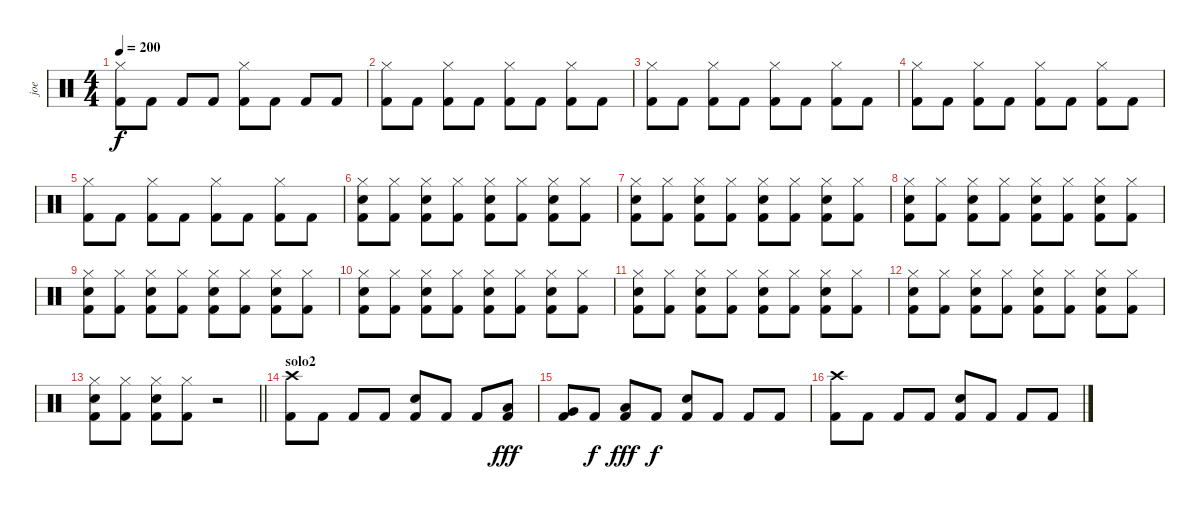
\track ("joe" "joe") {instrument percussion}
\staff {score}
\articulation defaults
\ts (4 4)
\tempo 200
\clef neutral
\ks c
("Hi-Hat (closed)" "Kick (hit) 2").8{dy f} "Kick (hit) 2".8 "Kick (hit) 2".8 "Kick (hit) 2".8 ("Hi-Hat (closed)" "Kick (hit) 2").8 "Kick (hit) 2".8 "Kick (hit) 2".8 "Kick (hit) 2".8 |
("Hi-Hat (closed)" "Kick (hit) 2").8 "Kick (hit) 2".8 ("Hi-Hat (closed)" "Kick (hit) 2").8 "Kick (hit) 2".8 ("Hi-Hat (closed)" "Kick (hit) 2").8 "Kick (hit) 2".8 ("Hi-Hat (closed)" "Kick (hit) 2").8 "Kick (hit) 2".8 |
("Hi-Hat (closed)" "Kick (hit) 2").8 "Kick (hit) 2".8 ("Hi-Hat (closed)" "Kick (hit) 2").8 "Kick (hit) 2".8 ("Hi-Hat (closed)" "Kick (hit) 2").8 "Kick (hit) 2".8 ("Hi-Hat (closed)" "Kick (hit) 2").8 "Kick (hit) 2".8 |
("Hi-Hat (closed)" "Kick (hit) 2").8 "Kick (hit) 2".8 ("Hi-Hat (closed)" "Kick (hit) 2").8 "Kick (hit) 2".8 ("Hi-Hat (closed)" "Kick (hit) 2").8 "Kick (hit) 2".8 ("Hi-Hat (closed)" "Kick (hit) 2").8 "Kick (hit) 2".8 |
("Hi-Hat (closed)" "Kick (hit) 2").8 "Kick (hit) 2".8 ("Hi-Hat (closed)" "Kick (hit) 2").8 "Kick (hit) 2".8 ("Hi-Hat (closed)" "Kick (hit) 2").8 "Kick (hit) 2".8 ("Hi-Hat (closed)" "Kick (hit) 2").8 "Kick (hit) 2".8 |
("Hi-Hat (closed)" "Snare (hit) 2" "Kick (hit) 2").8 ("Hi-Hat (closed)" "Kick (hit) 2").8 ("Hi-Hat (closed)" "Snare (hit) 2" "Kick (hit) 2").8 ("Hi-Hat (closed)" "Kick (hit) 2").8 ("Hi-Hat (closed)" "Snare (hit) 2" "Kick (hit) 2").8 ("Hi-Hat (closed)" "Kick (hit) 2").8 ("Hi-Hat (closed)" "Snare (hit) 2" "Kick (hit) 2").8 ("Hi-Hat (closed)" "Kick (hit) 2").8 |
("Hi-Hat (closed)" "Snare (hit) 2" "Kick (hit) 2").8 ("Hi-Hat (closed)" "Kick (hit) 2").8 ("Hi-Hat (closed)" "Snare (hit) 2" "Kick (hit) 2").8 ("Hi-Hat (closed)" "Kick (hit) 2").8 ("Hi-Hat (closed)" "Snare (hit) 2" "Kick (hit) 2").8 ("Hi-Hat (closed)" "Kick (hit) 2").8 ("Hi-Hat (closed)" "Snare (hit) 2" "Kick (hit) 2").8 ("Hi-Hat (closed)" "Kick (hit) 2").8 |
("Hi-Hat (closed)" "Snare (hit) 2" "Kick (hit) 2").8 ("Hi-Hat (closed)" "Kick (hit) 2").8 ("Hi-Hat (closed)" "Snare (hit) 2" "Kick (hit) 2").8 ("Hi-Hat (closed)" "Kick (hit) 2").8 ("Hi-Hat (closed)" "Snare (hit) 2" "Kick (hit) 2").8 ("Hi-Hat (closed)" "Kick (hit) 2").8 ("Hi-Hat (closed)" "Snare (hit) 2" "Kick (hit) 2").8 ("Hi-Hat (closed)" "Kick (hit) 2").8 |
("Hi-Hat (closed)" "Snare (hit) 2" "Kick (hit) 2").8 ("Hi-Hat (closed)" "Kick (hit) 2").8 ("Hi-Hat (closed)" "Snare (hit) 2" "Kick (hit) 2").8 ("Hi-Hat (closed)" "Kick (hit) 2").8 ("Hi-Hat (closed)" "Snare (hit) 2" "Kick (hit) 2").8 ("Hi-Hat (closed)" "Kick (hit) 2").8 ("Hi-Hat (closed)" "Snare (hit) 2" "Kick (hit) 2").8 ("Hi-Hat (closed)" "Kick (hit) 2").8 |
("Hi-Hat (closed)" "Snare (hit) 2" "Kick (hit) 2").8 ("Hi-Hat (closed)" "Kick (hit) 2").8 ("Hi-Hat (closed)" "Snare (hit) 2" "Kick (hit) 2").8 ("Hi-Hat (closed)" "Kick (hit) 2").8 ("Hi-Hat (closed)" "Snare (hit) 2" "Kick (hit) 2").8 ("Hi-Hat (closed)" "Kick (hit) 2").8 ("Hi-Hat (closed)" "Snare (hit) 2" "Kick (hit) 2").8 ("Hi-Hat (closed)" "Kick (hit) 2").8 |
("Hi-Hat (closed)" "Snare (hit) 2" "Kick (hit) 2").8 ("Hi-Hat (closed)" "Kick (hit) 2").8 ("Hi-Hat (closed)" "Snare (hit) 2" "Kick (hit) 2").8 ("Hi-Hat (closed)" "Kick (hit) 2").8 ("Hi-Hat (closed)" "Snare (hit) 2" "Kick (hit) 2").8 ("Hi-Hat (closed)" "Kick (hit) 2").8 ("Hi-Hat (closed)" "Snare (hit) 2" "Kick (hit) 2").8 ("Hi-Hat (closed)" "Kick (hit) 2").8 |
("Hi-Hat (closed)" "Snare (hit) 2" "Kick (hit) 2").8 ("Hi-Hat (closed)" "Kick (hit) 2").8 ("Hi-Hat (closed)" "Snare (hit) 2" "Kick (hit) 2").8 ("Hi-Hat (closed)" "Kick (hit) 2").8 ("Hi-Hat (closed)" "Snare (hit) 2" "Kick (hit) 2").8 ("Hi-Hat (closed)" "Kick (hit) 2").8 ("Hi-Hat (closed)" "Snare (hit) 2" "Kick (hit) 2").8 ("Hi-Hat (closed)" "Kick (hit) 2").8 |
\barLineRight lightlight
("Hi-Hat (closed)" "Snare (hit) 2" "Kick (hit) 2").8 ("Hi-Hat (closed)" "Kick (hit) 2").8 ("Hi-Hat (closed)" "Snare (hit) 2" "Kick (hit) 2").8 ("Hi-Hat (closed)" "Kick (hit) 2").8 r.2 |
\section ("" "solo2")
("Crash high (hit)" "Kick (hit) 2").8 "Kick (hit) 2".8 "Kick (hit) 2".8 "Kick (hit) 2".8 ("Snare (hit) 2" "Kick (hit) 2").8 "Kick (hit) 2".8 "Kick (hit) 2".8 ("Low Tom (hit)" "Kick (hit) 2").8{dy fff} |
("Very Low Tom (hit)" "Kick (hit) 2").8 "Kick (hit) 2".8{dy f} ("Low Floor Tom (hit)" "Kick (hit) 2").8{dy fff} "Kick (hit) 2".8{dy f} ("Snare (hit) 2" "Kick (hit) 2").8 "Kick (hit) 2".8 "Kick (hit) 2".8 "Kick (hit) 2".8 |
("Crash high (hit)" "Kick (hit) 2").8 "Kick (hit) 2".8 "Kick (hit) 2".8 "Kick (hit) 2".8 ("Snare (hit) 2" "Kick (hit) 2").8 "Kick (hit) 2".8 "Kick (hit) 2".8 "Kick (hit) 2".8
